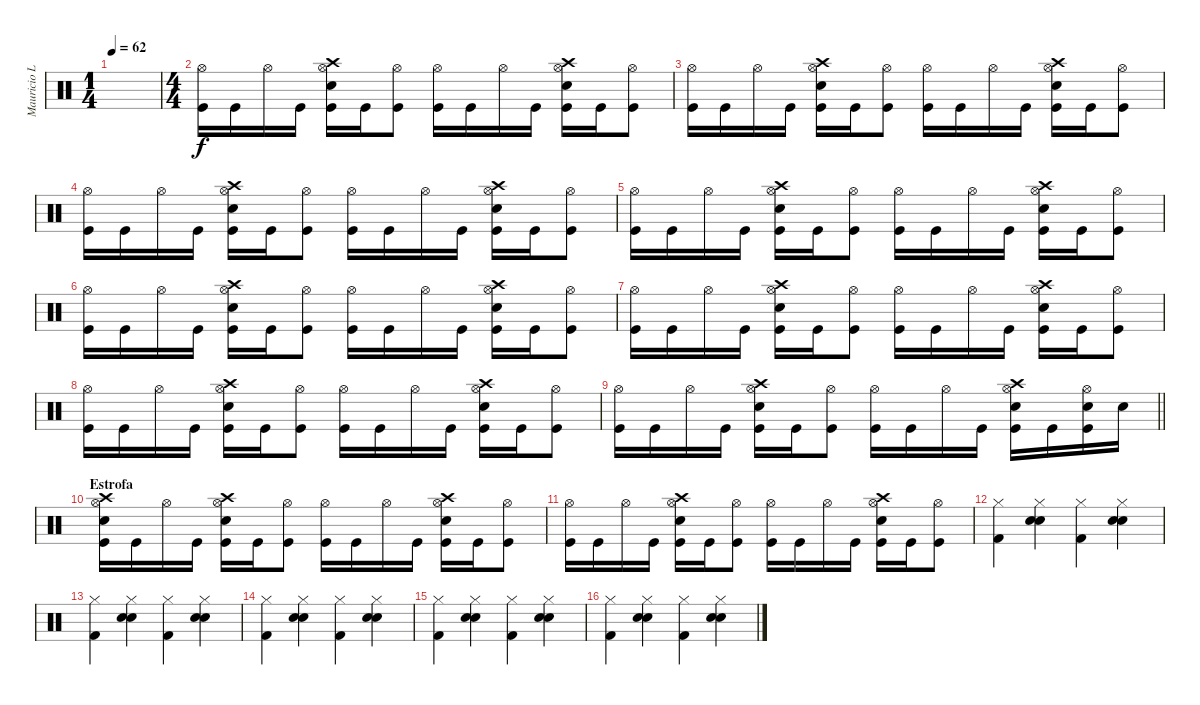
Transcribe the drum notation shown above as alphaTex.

\track ("Mauricio Loza" "Mauricio L") {instrument percussion}
\staff {score}
\articulation defaults
\ts (1 4)
\tempo 62
\clef neutral
\ks c
|
\ts (4 4)
("Hi-Hat (open)" "Kick (hit)").16 "Kick (hit)".16 "Hi-Hat (open)".16 "Kick (hit)".16 ("Crash high (hit)" "Hi-Hat (open)" "Snare (hit) 2" "Kick (hit)").16 "Kick (hit)".16 ("Hi-Hat (open)" "Kick (hit)").8 ("Hi-Hat (open)" "Kick (hit)").16 "Kick (hit)".16 "Hi-Hat (open)".16 "Kick (hit)".16 ("Crash high (hit)" "Hi-Hat (open)" "Snare (hit) 2" "Kick (hit)").16 "Kick (hit)".16 ("Hi-Hat (open)" "Kick (hit)").8 |
("Hi-Hat (open)" "Kick (hit)").16 "Kick (hit)".16 "Hi-Hat (open)".16 "Kick (hit)".16 ("Crash high (hit)" "Hi-Hat (open)" "Snare (hit) 2" "Kick (hit)").16 "Kick (hit)".16 ("Hi-Hat (open)" "Kick (hit)").8 ("Hi-Hat (open)" "Kick (hit)").16 "Kick (hit)".16 "Hi-Hat (open)".16 "Kick (hit)".16 ("Crash high (hit)" "Hi-Hat (open)" "Snare (hit) 2" "Kick (hit)").16 "Kick (hit)".16 ("Hi-Hat (open)" "Kick (hit)").8 |
("Hi-Hat (open)" "Kick (hit)").16 "Kick (hit)".16 "Hi-Hat (open)".16 "Kick (hit)".16 ("Crash high (hit)" "Hi-Hat (open)" "Snare (hit) 2" "Kick (hit)").16 "Kick (hit)".16 ("Hi-Hat (open)" "Kick (hit)").8 ("Hi-Hat (open)" "Kick (hit)").16 "Kick (hit)".16 "Hi-Hat (open)".16 "Kick (hit)".16 ("Crash high (hit)" "Hi-Hat (open)" "Snare (hit) 2" "Kick (hit)").16 "Kick (hit)".16 ("Hi-Hat (open)" "Kick (hit)").8 |
("Hi-Hat (open)" "Kick (hit)").16 "Kick (hit)".16 "Hi-Hat (open)".16 "Kick (hit)".16 ("Crash high (hit)" "Hi-Hat (open)" "Snare (hit) 2" "Kick (hit)").16 "Kick (hit)".16 ("Hi-Hat (open)" "Kick (hit)").8 ("Hi-Hat (open)" "Kick (hit)").16 "Kick (hit)".16 "Hi-Hat (open)".16 "Kick (hit)".16 ("Crash high (hit)" "Hi-Hat (open)" "Snare (hit) 2" "Kick (hit)").16 "Kick (hit)".16 ("Hi-Hat (open)" "Kick (hit)").8 |
("Hi-Hat (open)" "Kick (hit)").16 "Kick (hit)".16 "Hi-Hat (open)".16 "Kick (hit)".16 ("Crash high (hit)" "Hi-Hat (open)" "Snare (hit) 2" "Kick (hit)").16 "Kick (hit)".16 ("Hi-Hat (open)" "Kick (hit)").8 ("Hi-Hat (open)" "Kick (hit)").16 "Kick (hit)".16 "Hi-Hat (open)".16 "Kick (hit)".16 ("Crash high (hit)" "Hi-Hat (open)" "Snare (hit) 2" "Kick (hit)").16 "Kick (hit)".16 ("Hi-Hat (open)" "Kick (hit)").8 |
("Hi-Hat (open)" "Kick (hit)").16 "Kick (hit)".16 "Hi-Hat (open)".16 "Kick (hit)".16 ("Crash high (hit)" "Hi-Hat (open)" "Snare (hit) 2" "Kick (hit)").16 "Kick (hit)".16 ("Hi-Hat (open)" "Kick (hit)").8 ("Hi-Hat (open)" "Kick (hit)").16 "Kick (hit)".16 "Hi-Hat (open)".16 "Kick (hit)".16 ("Crash high (hit)" "Hi-Hat (open)" "Snare (hit) 2" "Kick (hit)").16 "Kick (hit)".16 ("Hi-Hat (open)" "Kick (hit)").8 |
("Hi-Hat (open)" "Kick (hit)").16 "Kick (hit)".16 "Hi-Hat (open)".16 "Kick (hit)".16 ("Crash high (hit)" "Hi-Hat (open)" "Snare (hit) 2" "Kick (hit)").16 "Kick (hit)".16 ("Hi-Hat (open)" "Kick (hit)").8 ("Hi-Hat (open)" "Kick (hit)").16 "Kick (hit)".16 "Hi-Hat (open)".16 "Kick (hit)".16 ("Crash high (hit)" "Hi-Hat (open)" "Snare (hit) 2" "Kick (hit)").16 "Kick (hit)".16 ("Hi-Hat (open)" "Kick (hit)").8 |
\barLineRight lightlight
("Hi-Hat (open)" "Kick (hit)").16 "Kick (hit)".16 "Hi-Hat (open)".16 "Kick (hit)".16 ("Crash high (hit)" "Hi-Hat (open)" "Snare (hit) 2" "Kick (hit)").16 "Kick (hit)".16 ("Hi-Hat (open)" "Kick (hit)").8 ("Hi-Hat (open)" "Kick (hit)").16 "Kick (hit)".16 "Hi-Hat (open)".16 "Kick (hit)".16 ("Crash high (hit)" "Hi-Hat (open)" "Snare (hit) 2" "Kick (hit)").16 "Kick (hit)".16 ("Hi-Hat (open)" "Snare (hit) 2" "Kick (hit)").16 "Snare (hit) 2".16 |
\section ("" "Estrofa")
("Crash high (hit)" "Hi-Hat (open)" "Snare (hit) 2" "Kick (hit)").16 "Kick (hit)".16 "Hi-Hat (open)".16 "Kick (hit)".16 ("Crash high (hit)" "Hi-Hat (open)" "Snare (hit) 2" "Kick (hit)").16 "Kick (hit)".16 ("Hi-Hat (open)" "Kick (hit)").8 ("Hi-Hat (open)" "Kick (hit)").16 "Kick (hit)".16 "Hi-Hat (open)".16 "Kick (hit)".16 ("Crash high (hit)" "Hi-Hat (open)" "Snare (hit) 2" "Kick (hit)").16 "Kick (hit)".16 ("Hi-Hat (open)" "Kick (hit)").8 |
("Hi-Hat (open)" "Kick (hit)").16 "Kick (hit)".16 "Hi-Hat (open)".16 "Kick (hit)".16 ("Crash high (hit)" "Hi-Hat (open)" "Snare (hit) 2" "Kick (hit)").16 "Kick (hit)".16 ("Hi-Hat (open)" "Kick (hit)").8 ("Hi-Hat (open)" "Kick (hit)").16 "Kick (hit)".16 "Hi-Hat (open)".16 "Kick (hit)".16 ("Crash high (hit)" "Hi-Hat (open)" "Snare (hit) 2" "Kick (hit)").16 "Kick (hit)".16 ("Hi-Hat (open)" "Kick (hit)").8 |
("Hi-Hat (closed)" "Kick (hit) 2").4 ("Hi-Hat (closed)" "Electric Snare (hit)" "Hand Clap (hit)").4 ("Hi-Hat (closed)" "Kick (hit) 2").4 ("Hi-Hat (closed)" "Electric Snare (hit)" "Hand Clap (hit)").4 |
("Hi-Hat (closed)" "Kick (hit) 2").4 ("Hi-Hat (closed)" "Electric Snare (hit)" "Hand Clap (hit)").4 ("Hi-Hat (closed)" "Kick (hit) 2").4 ("Hi-Hat (closed)" "Electric Snare (hit)" "Hand Clap (hit)").4 |
("Hi-Hat (closed)" "Kick (hit) 2").4 ("Hi-Hat (closed)" "Electric Snare (hit)" "Hand Clap (hit)").4 ("Hi-Hat (closed)" "Kick (hit) 2").4 ("Hi-Hat (closed)" "Electric Snare (hit)" "Hand Clap (hit)").4 |
("Hi-Hat (closed)" "Kick (hit) 2").4 ("Hi-Hat (closed)" "Electric Snare (hit)" "Hand Clap (hit)").4 ("Hi-Hat (closed)" "Kick (hit) 2").4 ("Hi-Hat (closed)" "Electric Snare (hit)" "Hand Clap (hit)").4 |
("Hi-Hat (closed)" "Kick (hit) 2").4 ("Hi-Hat (closed)" "Electric Snare (hit)" "Hand Clap (hit)").4 ("Hi-Hat (closed)" "Kick (hit) 2").4 ("Hi-Hat (closed)" "Electric Snare (hit)" "Hand Clap (hit)").4
